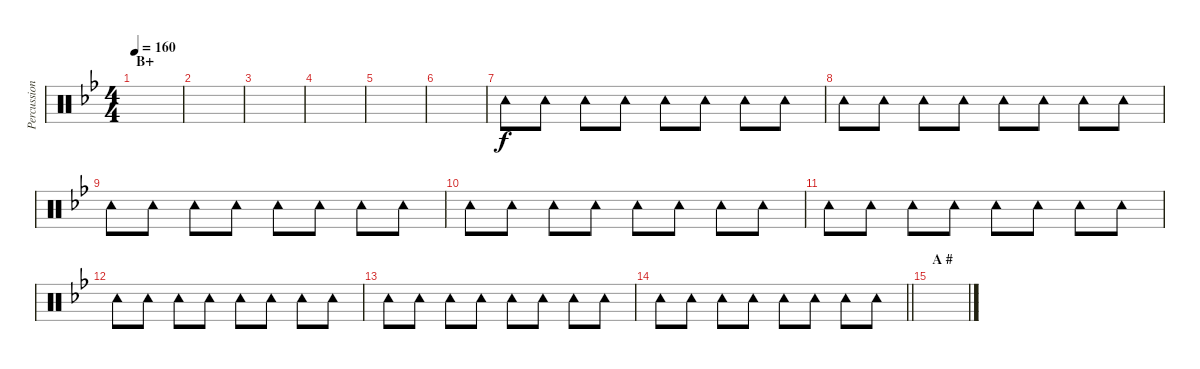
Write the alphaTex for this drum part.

\track ("Percussion (Tainaka Ritsu)" "Percussion") {instrument percussion}
\staff {score}
\articulation defaults
\ts (4 4)
\section ("" "B+")
\tempo 160
\clef neutral
\ks bb
|
|
|
|
|
|
"Tambourine (hit)".8 "Tambourine (hit)".8 "Tambourine (hit)".8 "Tambourine (hit)".8 "Tambourine (hit)".8 "Tambourine (hit)".8 "Tambourine (hit)".8 "Tambourine (hit)".8 |
"Tambourine (hit)".8 "Tambourine (hit)".8 "Tambourine (hit)".8 "Tambourine (hit)".8 "Tambourine (hit)".8 "Tambourine (hit)".8 "Tambourine (hit)".8 "Tambourine (hit)".8 |
"Tambourine (hit)".8 "Tambourine (hit)".8 "Tambourine (hit)".8 "Tambourine (hit)".8 "Tambourine (hit)".8 "Tambourine (hit)".8 "Tambourine (hit)".8 "Tambourine (hit)".8 |
"Tambourine (hit)".8 "Tambourine (hit)".8 "Tambourine (hit)".8 "Tambourine (hit)".8 "Tambourine (hit)".8 "Tambourine (hit)".8 "Tambourine (hit)".8 "Tambourine (hit)".8 |
"Tambourine (hit)".8 "Tambourine (hit)".8 "Tambourine (hit)".8 "Tambourine (hit)".8 "Tambourine (hit)".8 "Tambourine (hit)".8 "Tambourine (hit)".8 "Tambourine (hit)".8 |
"Tambourine (hit)".8 "Tambourine (hit)".8 "Tambourine (hit)".8 "Tambourine (hit)".8 "Tambourine (hit)".8 "Tambourine (hit)".8 "Tambourine (hit)".8 "Tambourine (hit)".8 |
"Tambourine (hit)".8 "Tambourine (hit)".8 "Tambourine (hit)".8 "Tambourine (hit)".8 "Tambourine (hit)".8 "Tambourine (hit)".8 "Tambourine (hit)".8 "Tambourine (hit)".8 |
\barLineRight lightlight "Tambourine (hit)".8 "Tambourine (hit)".8 "Tambourine (hit)".8 "Tambourine (hit)".8 "Tambourine (hit)".8 "Tambourine (hit)".8 "Tambourine (hit)".8 "Tambourine (hit)".8
|
\section ("" "A #")
